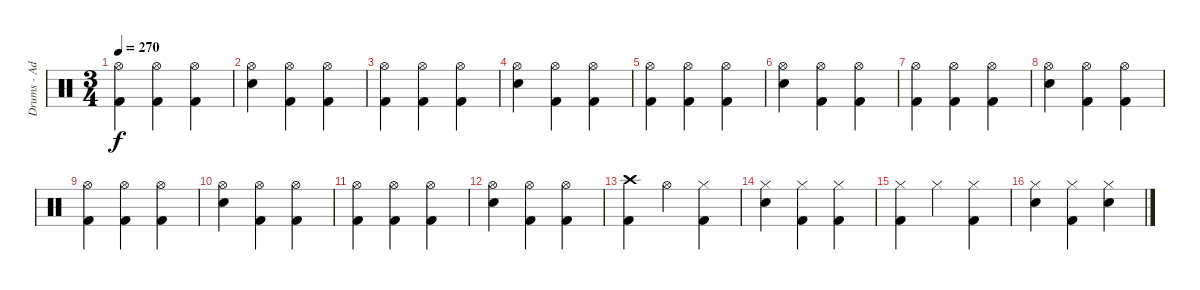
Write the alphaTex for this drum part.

\track ("Drums - Adam" "Drums - Ad") {instrument percussion}
\staff {score}
\articulation defaults
\ts (3 4)
\tempo 270
\clef neutral
\ks c
("Hi-Hat (open)" "Kick (hit) 2").4{dy f} ("Hi-Hat (open)" "Kick (hit) 2").4 ("Hi-Hat (open)" "Kick (hit) 2").4 |
("Hi-Hat (open)" "Electric Snare (hit)").4 ("Hi-Hat (open)" "Kick (hit) 2").4 ("Hi-Hat (open)" "Kick (hit) 2").4 |
("Hi-Hat (open)" "Kick (hit) 2").4 ("Hi-Hat (open)" "Kick (hit) 2").4 ("Hi-Hat (open)" "Kick (hit) 2").4 |
("Hi-Hat (open)" "Electric Snare (hit)").4 ("Hi-Hat (open)" "Kick (hit) 2").4 ("Hi-Hat (open)" "Kick (hit) 2").4 |
("Hi-Hat (open)" "Kick (hit) 2").4 ("Hi-Hat (open)" "Kick (hit) 2").4 ("Hi-Hat (open)" "Kick (hit) 2").4 |
("Hi-Hat (open)" "Electric Snare (hit)").4 ("Hi-Hat (open)" "Kick (hit) 2").4 ("Hi-Hat (open)" "Kick (hit) 2").4 |
("Hi-Hat (open)" "Kick (hit) 2").4 ("Hi-Hat (open)" "Kick (hit) 2").4 ("Hi-Hat (open)" "Kick (hit) 2").4 |
("Hi-Hat (open)" "Electric Snare (hit)").4 ("Hi-Hat (open)" "Kick (hit) 2").4 ("Hi-Hat (open)" "Kick (hit) 2").4 |
("Hi-Hat (open)" "Kick (hit) 2").4 ("Hi-Hat (open)" "Kick (hit) 2").4 ("Hi-Hat (open)" "Kick (hit) 2").4 |
("Hi-Hat (open)" "Electric Snare (hit)").4 ("Hi-Hat (open)" "Kick (hit) 2").4 ("Hi-Hat (open)" "Kick (hit) 2").4 |
("Hi-Hat (open)" "Kick (hit) 2").4 ("Hi-Hat (open)" "Kick (hit) 2").4 ("Hi-Hat (open)" "Kick (hit) 2").4 |
("Hi-Hat (open)" "Electric Snare (hit)").4 ("Hi-Hat (open)" "Kick (hit) 2").4 ("Hi-Hat (open)" "Kick (hit) 2").4 |
("Kick (hit) 2" "Crash high (hit)").4 "Hi-Hat (open)".4 ("Hi-Hat (closed)" "Kick (hit) 2").4 |
("Hi-Hat (closed)" "Electric Snare (hit)").4 ("Hi-Hat (closed)" "Kick (hit) 2").4 ("Hi-Hat (closed)" "Kick (hit) 2").4 |
("Hi-Hat (closed)" "Kick (hit) 2").4 "Hi-Hat (closed)".4 ("Hi-Hat (closed)" "Kick (hit) 2").4 |
("Hi-Hat (closed)" "Electric Snare (hit)").4 ("Hi-Hat (closed)" "Kick (hit) 2").4 ("Hi-Hat (closed)" "Electric Snare (hit)").4
